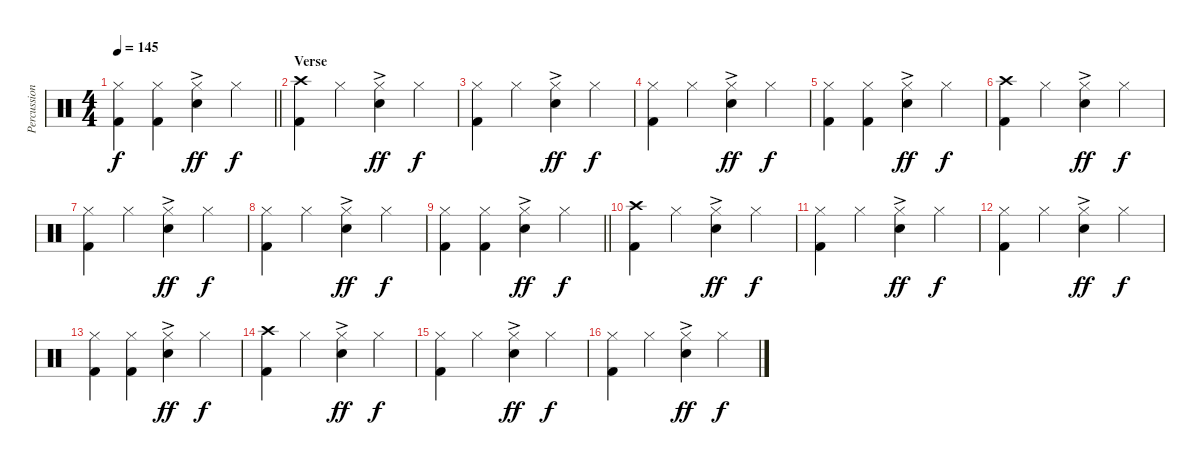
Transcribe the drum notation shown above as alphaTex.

\track ("Percussion" "Percussion") {instrument percussion}
\staff {score}
\articulation defaults
\ts (4 4)
\tempo 145
\clef neutral
\barLineRight lightlight
\ks c
("Hi-Hat (closed)" "Kick (hit) 2").4{dy f} ("Hi-Hat (closed)" "Kick (hit) 2").4 ("Hi-Hat (closed)" "Electric Snare (hit)"{ac}).4{dy ff} "Hi-Hat (closed)".4{dy f} |
\section ("" "Verse")
("Crash high (hit)" "Kick (hit) 2").4 "Hi-Hat (closed)".4 ("Hi-Hat (closed)" "Electric Snare (hit)"{ac}).4{dy ff} "Hi-Hat (closed)".4{dy f} |
("Hi-Hat (closed)" "Kick (hit) 2").4 "Hi-Hat (closed)".4 ("Hi-Hat (closed)" "Electric Snare (hit)"{ac}).4{dy ff} "Hi-Hat (closed)".4{dy f} |
("Hi-Hat (closed)" "Kick (hit) 2").4 "Hi-Hat (closed)".4 ("Hi-Hat (closed)" "Electric Snare (hit)"{ac}).4{dy ff} "Hi-Hat (closed)".4{dy f} |
("Hi-Hat (closed)" "Kick (hit) 2").4 ("Hi-Hat (closed)" "Kick (hit) 2").4 ("Hi-Hat (closed)" "Electric Snare (hit)"{ac}).4{dy ff} "Hi-Hat (closed)".4{dy f} |
("Crash high (hit)" "Kick (hit) 2").4 "Hi-Hat (closed)".4 ("Hi-Hat (closed)" "Electric Snare (hit)"{ac}).4{dy ff} "Hi-Hat (closed)".4{dy f} |
("Hi-Hat (closed)" "Kick (hit) 2").4 "Hi-Hat (closed)".4 ("Hi-Hat (closed)" "Electric Snare (hit)"{ac}).4{dy ff} "Hi-Hat (closed)".4{dy f} |
("Hi-Hat (closed)" "Kick (hit) 2").4 "Hi-Hat (closed)".4 ("Hi-Hat (closed)" "Electric Snare (hit)"{ac}).4{dy ff} "Hi-Hat (closed)".4{dy f} |
\barLineRight lightlight
("Hi-Hat (closed)" "Kick (hit) 2").4 ("Hi-Hat (closed)" "Kick (hit) 2").4 ("Hi-Hat (closed)" "Electric Snare (hit)"{ac}).4{dy ff} "Hi-Hat (closed)".4{dy f} |
("Crash high (hit)" "Kick (hit) 2").4 "Hi-Hat (closed)".4 ("Hi-Hat (closed)" "Electric Snare (hit)"{ac}).4{dy ff} "Hi-Hat (closed)".4{dy f} |
("Hi-Hat (closed)" "Kick (hit) 2").4 "Hi-Hat (closed)".4 ("Hi-Hat (closed)" "Electric Snare (hit)"{ac}).4{dy ff} "Hi-Hat (closed)".4{dy f} |
("Hi-Hat (closed)" "Kick (hit) 2").4 "Hi-Hat (closed)".4 ("Hi-Hat (closed)" "Electric Snare (hit)"{ac}).4{dy ff} "Hi-Hat (closed)".4{dy f} |
("Hi-Hat (closed)" "Kick (hit) 2").4 ("Hi-Hat (closed)" "Kick (hit) 2").4 ("Hi-Hat (closed)" "Electric Snare (hit)"{ac}).4{dy ff} "Hi-Hat (closed)".4{dy f} |
("Crash high (hit)" "Kick (hit) 2").4 "Hi-Hat (closed)".4 ("Hi-Hat (closed)" "Electric Snare (hit)"{ac}).4{dy ff} "Hi-Hat (closed)".4{dy f} |
("Hi-Hat (closed)" "Kick (hit) 2").4 "Hi-Hat (closed)".4 ("Hi-Hat (closed)" "Electric Snare (hit)"{ac}).4{dy ff} "Hi-Hat (closed)".4{dy f} |
("Hi-Hat (closed)" "Kick (hit) 2").4 "Hi-Hat (closed)".4 ("Hi-Hat (closed)" "Electric Snare (hit)"{ac}).4{dy ff} "Hi-Hat (closed)".4{dy f}
